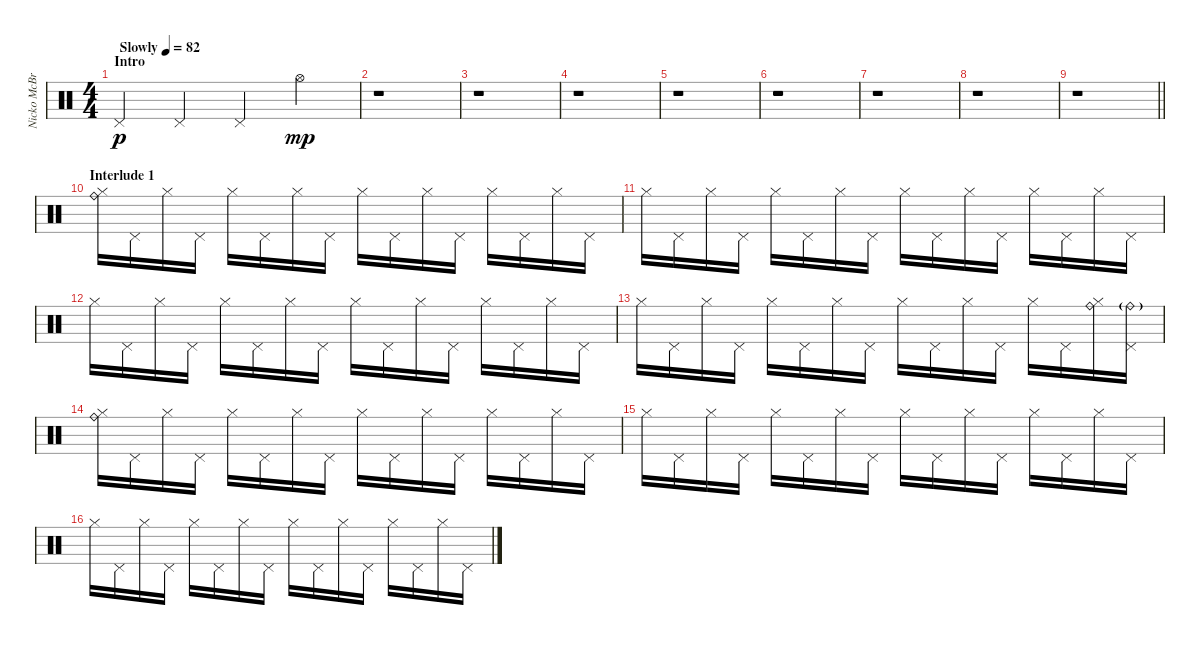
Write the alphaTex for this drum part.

\track ("Nicko McBrain" "Nicko McBr") {instrument percussion}
\staff {score}
\articulation defaults
\ts (4 4)
\section ("" "Intro")
\tempo (82 "Slowly")
\clef neutral
\ks c "Pedal Hi-Hat (hit)".4{dy p} "Pedal Hi-Hat (hit)".4 "Pedal Hi-Hat (hit)".4 "Hi-Hat (open)".4{dy mp}
|
r.1 |
r.1 |
r.1 |
r.1 |
r.1 |
r.1 |
r.1 |
\barLineRight lightlight
r.1 |
\section ("" "Interlude 1")
("Hi-Hat (closed)" "Ride (bell)").16 "Pedal Hi-Hat (hit)".16 "Hi-Hat (closed)".16 "Pedal Hi-Hat (hit)".16 "Hi-Hat (closed)".16 "Pedal Hi-Hat (hit)".16 "Hi-Hat (closed)".16 "Pedal Hi-Hat (hit)".16 "Hi-Hat (closed)".16 "Pedal Hi-Hat (hit)".16 "Hi-Hat (closed)".16 "Pedal Hi-Hat (hit)".16 "Hi-Hat (closed)".16 "Pedal Hi-Hat (hit)".16 "Hi-Hat (closed)".16 "Pedal Hi-Hat (hit)".16 |
"Hi-Hat (closed)".16 "Pedal Hi-Hat (hit)".16 "Hi-Hat (closed)".16 "Pedal Hi-Hat (hit)".16 "Hi-Hat (closed)".16 "Pedal Hi-Hat (hit)".16 "Hi-Hat (closed)".16 "Pedal Hi-Hat (hit)".16 "Hi-Hat (closed)".16 "Pedal Hi-Hat (hit)".16 "Hi-Hat (closed)".16 "Pedal Hi-Hat (hit)".16 "Hi-Hat (closed)".16 "Pedal Hi-Hat (hit)".16 "Hi-Hat (closed)".16 "Pedal Hi-Hat (hit)".16 |
"Hi-Hat (closed)".16 "Pedal Hi-Hat (hit)".16 "Hi-Hat (closed)".16 "Pedal Hi-Hat (hit)".16 "Hi-Hat (closed)".16 "Pedal Hi-Hat (hit)".16 "Hi-Hat (closed)".16 "Pedal Hi-Hat (hit)".16 "Hi-Hat (closed)".16 "Pedal Hi-Hat (hit)".16 "Hi-Hat (closed)".16 "Pedal Hi-Hat (hit)".16 "Hi-Hat (closed)".16 "Pedal Hi-Hat (hit)".16 "Hi-Hat (closed)".16 "Pedal Hi-Hat (hit)".16 |
"Hi-Hat (closed)".16 "Pedal Hi-Hat (hit)".16 "Hi-Hat (closed)".16 "Pedal Hi-Hat (hit)".16 "Hi-Hat (closed)".16 "Pedal Hi-Hat (hit)".16 "Hi-Hat (closed)".16 "Pedal Hi-Hat (hit)".16 "Hi-Hat (closed)".16 "Pedal Hi-Hat (hit)".16 "Hi-Hat (closed)".16 "Pedal Hi-Hat (hit)".16 "Hi-Hat (closed)".16 "Pedal Hi-Hat (hit)".16 ("Hi-Hat (closed)" "Ride (bell)").16 ("Pedal Hi-Hat (hit)" "Ride (bell)"{g}).16 |
("Hi-Hat (closed)" "Ride (bell)").16 "Pedal Hi-Hat (hit)".16 "Hi-Hat (closed)".16 "Pedal Hi-Hat (hit)".16 "Hi-Hat (closed)".16 "Pedal Hi-Hat (hit)".16 "Hi-Hat (closed)".16 "Pedal Hi-Hat (hit)".16 "Hi-Hat (closed)".16 "Pedal Hi-Hat (hit)".16 "Hi-Hat (closed)".16 "Pedal Hi-Hat (hit)".16 "Hi-Hat (closed)".16 "Pedal Hi-Hat (hit)".16 "Hi-Hat (closed)".16 "Pedal Hi-Hat (hit)".16 |
"Hi-Hat (closed)".16 "Pedal Hi-Hat (hit)".16 "Hi-Hat (closed)".16 "Pedal Hi-Hat (hit)".16 "Hi-Hat (closed)".16 "Pedal Hi-Hat (hit)".16 "Hi-Hat (closed)".16 "Pedal Hi-Hat (hit)".16 "Hi-Hat (closed)".16 "Pedal Hi-Hat (hit)".16 "Hi-Hat (closed)".16 "Pedal Hi-Hat (hit)".16 "Hi-Hat (closed)".16 "Pedal Hi-Hat (hit)".16 "Hi-Hat (closed)".16 "Pedal Hi-Hat (hit)".16 |
"Hi-Hat (closed)".16 "Pedal Hi-Hat (hit)".16 "Hi-Hat (closed)".16 "Pedal Hi-Hat (hit)".16 "Hi-Hat (closed)".16 "Pedal Hi-Hat (hit)".16 "Hi-Hat (closed)".16 "Pedal Hi-Hat (hit)".16 "Hi-Hat (closed)".16 "Pedal Hi-Hat (hit)".16 "Hi-Hat (closed)".16 "Pedal Hi-Hat (hit)".16 "Hi-Hat (closed)".16 "Pedal Hi-Hat (hit)".16 "Hi-Hat (closed)".16 "Pedal Hi-Hat (hit)".16
